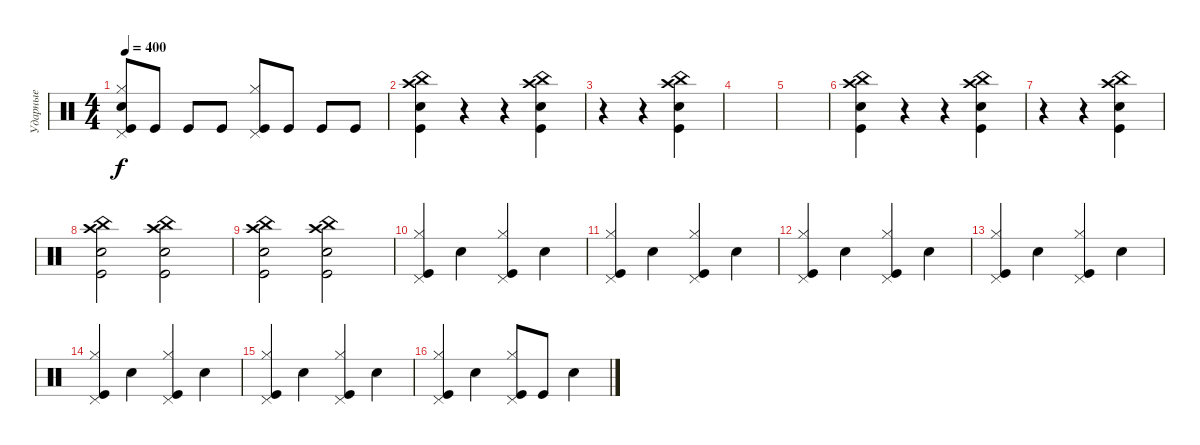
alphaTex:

\track ("Ударные" "Ударные") {instrument percussion}
\staff {score}
\articulation defaults
\ts (4 4)
\tempo 400
\clef neutral
\ks c
("Kick (hit)" "Electric Snare (hit)" "Hi-Hat (closed)" "Pedal Hi-Hat (hit)").8{dy f} "Kick (hit)".8 "Kick (hit)".8 "Kick (hit)".8 ("Kick (hit)" "Pedal Hi-Hat (hit)" "Hi-Hat (closed)").8 "Kick (hit)".8 "Kick (hit)".8 "Kick (hit)".8 |
("Crash high (hit)" "China (hit)" "Kick (hit)" "Electric Snare (hit)").4 r.4 r.4 ("Electric Snare (hit)" "Kick (hit)" "Crash high (hit)" "China (hit)").4 |
r.4 r.4 ("China (hit)" "Crash high (hit)" "Kick (hit)" "Electric Snare (hit)").4 |
|
|
("Crash high (hit)" "China (hit)" "Kick (hit)" "Electric Snare (hit)").4 r.4 r.4 ("Electric Snare (hit)" "Kick (hit)" "Crash high (hit)" "China (hit)").4 |
r.4 r.4 ("China (hit)" "Crash high (hit)" "Kick (hit)" "Electric Snare (hit)").4 |
("Kick (hit)" "Electric Snare (hit)" "Crash high (hit)" "China (hit)").2 ("China (hit)" "Crash high (hit)" "Kick (hit)" "Electric Snare (hit)").2 |
("Kick (hit)" "Electric Snare (hit)" "Crash high (hit)" "China (hit)").2 ("China (hit)" "Crash high (hit)" "Kick (hit)" "Electric Snare (hit)").2 |
("Kick (hit)" "Hi-Hat (closed)" "Pedal Hi-Hat (hit)").4 "Electric Snare (hit)".4 ("Kick (hit)" "Pedal Hi-Hat (hit)" "Hi-Hat (closed)").4 "Electric Snare (hit)".4 |
("Kick (hit)" "Hi-Hat (closed)" "Pedal Hi-Hat (hit)").4 "Electric Snare (hit)".4 ("Kick (hit)" "Pedal Hi-Hat (hit)" "Hi-Hat (closed)").4 "Electric Snare (hit)".4 |
("Kick (hit)" "Hi-Hat (closed)" "Pedal Hi-Hat (hit)").4 "Electric Snare (hit)".4 ("Kick (hit)" "Pedal Hi-Hat (hit)" "Hi-Hat (closed)").4 "Electric Snare (hit)".4 |
("Kick (hit)" "Hi-Hat (closed)" "Pedal Hi-Hat (hit)").4 "Electric Snare (hit)".4 ("Kick (hit)" "Pedal Hi-Hat (hit)" "Hi-Hat (closed)").4 "Electric Snare (hit)".4 |
("Kick (hit)" "Hi-Hat (closed)" "Pedal Hi-Hat (hit)").4 "Electric Snare (hit)".4 ("Kick (hit)" "Pedal Hi-Hat (hit)" "Hi-Hat (closed)").4 "Electric Snare (hit)".4 |
("Kick (hit)" "Hi-Hat (closed)" "Pedal Hi-Hat (hit)").4 "Electric Snare (hit)".4 ("Kick (hit)" "Pedal Hi-Hat (hit)" "Hi-Hat (closed)").4 "Electric Snare (hit)".4 |
("Kick (hit)" "Hi-Hat (closed)" "Pedal Hi-Hat (hit)").4 "Electric Snare (hit)".4 ("Kick (hit)" "Pedal Hi-Hat (hit)" "Hi-Hat (closed)").8 "Kick (hit)".8 "Electric Snare (hit)".4
